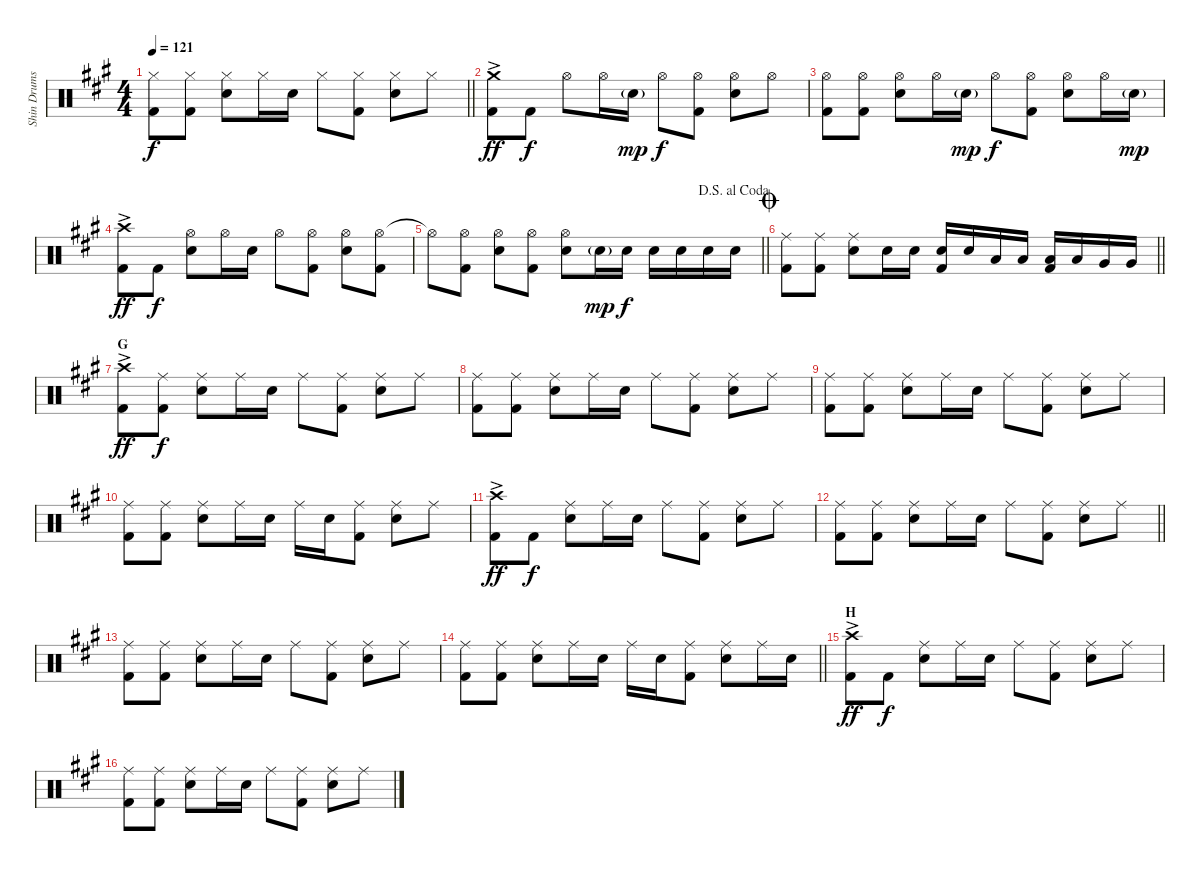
\track ("Shin Drums" "Shin Drums") {instrument percussion}
\staff {score}
\articulation defaults
\ts (4 4)
\tempo 121
\clef neutral
\barLineRight lightlight
\ks a
("Hi-Hat (closed)" "Kick (hit) 2").8{dy f} ("Hi-Hat (closed)" "Kick (hit) 2").8 ("Hi-Hat (closed)" "Snare (hit) 2").8 "Hi-Hat (closed)".16 "Snare (hit) 2".16 "Hi-Hat (closed)".8 ("Hi-Hat (closed)" "Kick (hit) 2").8 ("Hi-Hat (closed)" "Snare (hit) 2").8 "Hi-Hat (closed)".8 |
("Crash medium (hit)"{ac} "Kick (hit) 2"{ac}).8{dy ff} "Kick (hit) 2".8{dy f} "Hi-Hat (open)".8 "Hi-Hat (open)".16 "Snare (hit) 2"{g}.16{dy mp} "Hi-Hat (open)".8{dy f} ("Hi-Hat (open)" "Kick (hit) 2").8 ("Hi-Hat (open)" "Snare (hit) 2").8 "Hi-Hat (open)".8 |
("Hi-Hat (open)" "Kick (hit) 2").8 ("Hi-Hat (open)" "Kick (hit) 2").8 ("Hi-Hat (open)" "Snare (hit) 2").8 "Hi-Hat (open)".16 "Snare (hit) 2"{g}.16{dy mp} "Hi-Hat (open)".8{dy f} ("Hi-Hat (open)" "Kick (hit) 2").8 ("Hi-Hat (open)" "Snare (hit) 2").8 "Hi-Hat (open)".16 "Snare (hit) 2"{g}.16{dy mp} |
("Crash high (hit)"{ac} "Kick (hit) 2"{ac}).8{dy ff} "Kick (hit) 2".8{dy f} ("Hi-Hat (open)" "Snare (hit) 2").8 "Hi-Hat (open)".16 "Snare (hit) 2".16 "Hi-Hat (open)".8 ("Hi-Hat (open)" "Kick (hit) 2").8 ("Hi-Hat (open)" "Snare (hit) 2").8 ("Hi-Hat (open)" "Kick (hit) 2").8 |
\jump dalsegnoalcoda
\barLineRight lightlight "Hi-Hat (open)"{t}.8
("Hi-Hat (open)" "Kick (hit) 2").8 ("Hi-Hat (open)" "Snare (hit) 2").8 ("Hi-Hat (open)" "Kick (hit) 2").8 ("Hi-Hat (open)" "Snare (hit) 2").8 "Snare (hit) 2"{g}.16{dy mp} "Snare (hit) 2".16{dy f} "Snare (hit) 2".16 "Snare (hit) 2".16 "Snare (hit) 2".16 "Snare (hit) 2".16 |
\section ("" "")
\jump coda
\barLineRight lightlight
("Ride (middle)" "Kick (hit) 2").8 ("Ride (middle)" "Kick (hit) 2").8 ("Ride (middle)" "Snare (hit) 2").8 "Snare (hit) 2".16 "Snare (hit) 2".16 ("Snare (hit) 2" "Kick (hit) 2").16 "Snare (hit) 2".16 "Low Tom (hit)".16 "Low Tom (hit)".16 ("Low Tom (hit)" "Kick (hit) 2").16 "Low Tom (hit)".16 "Very Low Tom (hit)".16 "Very Low Tom (hit)".16 |
\section ("" "G")
("Crash high (hit)"{ac} "Kick (hit) 2"{ac}).8{dy ff} ("Ride (middle)" "Kick (hit) 2").8{dy f} ("Ride (middle)" "Snare (hit) 2").8 "Ride (middle)".16 "Snare (hit) 2".16 "Ride (middle)".8 ("Ride (middle)" "Kick (hit) 2").8 ("Ride (middle)" "Snare (hit) 2").8 "Ride (middle)".8 |
("Ride (middle)" "Kick (hit) 2").8 ("Ride (middle)" "Kick (hit) 2").8 ("Ride (middle)" "Snare (hit) 2").8 "Ride (middle)".16 "Snare (hit) 2".16 "Ride (middle)".8 ("Ride (middle)" "Kick (hit) 2").8 ("Ride (middle)" "Snare (hit) 2").8 "Ride (middle)".8 |
("Ride (middle)" "Kick (hit) 2").8 ("Ride (middle)" "Kick (hit) 2").8 ("Ride (middle)" "Snare (hit) 2").8 "Ride (middle)".16 "Snare (hit) 2".16 "Ride (middle)".8 ("Ride (middle)" "Kick (hit) 2").8 ("Ride (middle)" "Snare (hit) 2").8 "Ride (middle)".8 |
("Ride (middle)" "Kick (hit) 2").8 ("Ride (middle)" "Kick (hit) 2").8 ("Ride (middle)" "Snare (hit) 2").8 "Ride (middle)".16 "Snare (hit) 2".16 "Ride (middle)".16 "Snare (hit) 2".16 ("Ride (middle)" "Kick (hit) 2").8 ("Ride (middle)" "Snare (hit) 2").8 "Ride (middle)".8 |
("Crash high (hit)"{ac} "Kick (hit) 2"{ac}).8{dy ff} "Kick (hit) 2".8{dy f} ("Ride (middle)" "Snare (hit) 2").8 "Ride (middle)".16 "Snare (hit) 2".16 "Ride (middle)".8 ("Ride (middle)" "Kick (hit) 2").8 ("Ride (middle)" "Snare (hit) 2").8 "Ride (middle)".8 |
\barLineRight lightlight
("Ride (middle)" "Kick (hit) 2").8 ("Ride (middle)" "Kick (hit) 2").8 ("Ride (middle)" "Snare (hit) 2").8 "Ride (middle)".16 "Snare (hit) 2".16 "Ride (middle)".8 ("Ride (middle)" "Kick (hit) 2").8 ("Ride (middle)" "Snare (hit) 2").8 "Ride (middle)".8 |
\section ("" "")
("Ride (middle)" "Kick (hit) 2").8 ("Ride (middle)" "Kick (hit) 2").8 ("Ride (middle)" "Snare (hit) 2").8 "Ride (middle)".16 "Snare (hit) 2".16 "Ride (middle)".8 ("Ride (middle)" "Kick (hit) 2").8 ("Ride (middle)" "Snare (hit) 2").8 "Ride (middle)".8 |
\barLineRight lightlight
("Ride (middle)" "Kick (hit) 2").8 ("Ride (middle)" "Kick (hit) 2").8 ("Ride (middle)" "Snare (hit) 2").8 "Ride (middle)".16 "Snare (hit) 2".16 "Ride (middle)".16 "Snare (hit) 2".16 ("Ride (middle)" "Kick (hit) 2").8 ("Ride (middle)" "Snare (hit) 2").8 "Ride (middle)".16 "Snare (hit) 2".16 |
\section ("" "H")
("Crash high (hit)"{ac} "Kick (hit) 2"{ac}).8{dy ff} "Kick (hit) 2".8{dy f} ("Ride (middle)" "Snare (hit) 2").8 "Ride (middle)".16 "Snare (hit) 2".16 "Ride (middle)".8 ("Ride (middle)" "Kick (hit) 2").8 ("Ride (middle)" "Snare (hit) 2").8 "Ride (middle)".8 |
("Ride (middle)" "Kick (hit) 2").8 ("Ride (middle)" "Kick (hit) 2").8 ("Ride (middle)" "Snare (hit) 2").8 "Ride (middle)".16 "Snare (hit) 2".16 "Ride (middle)".8 ("Ride (middle)" "Kick (hit) 2").8 ("Ride (middle)" "Snare (hit) 2").8 "Ride (middle)".8
